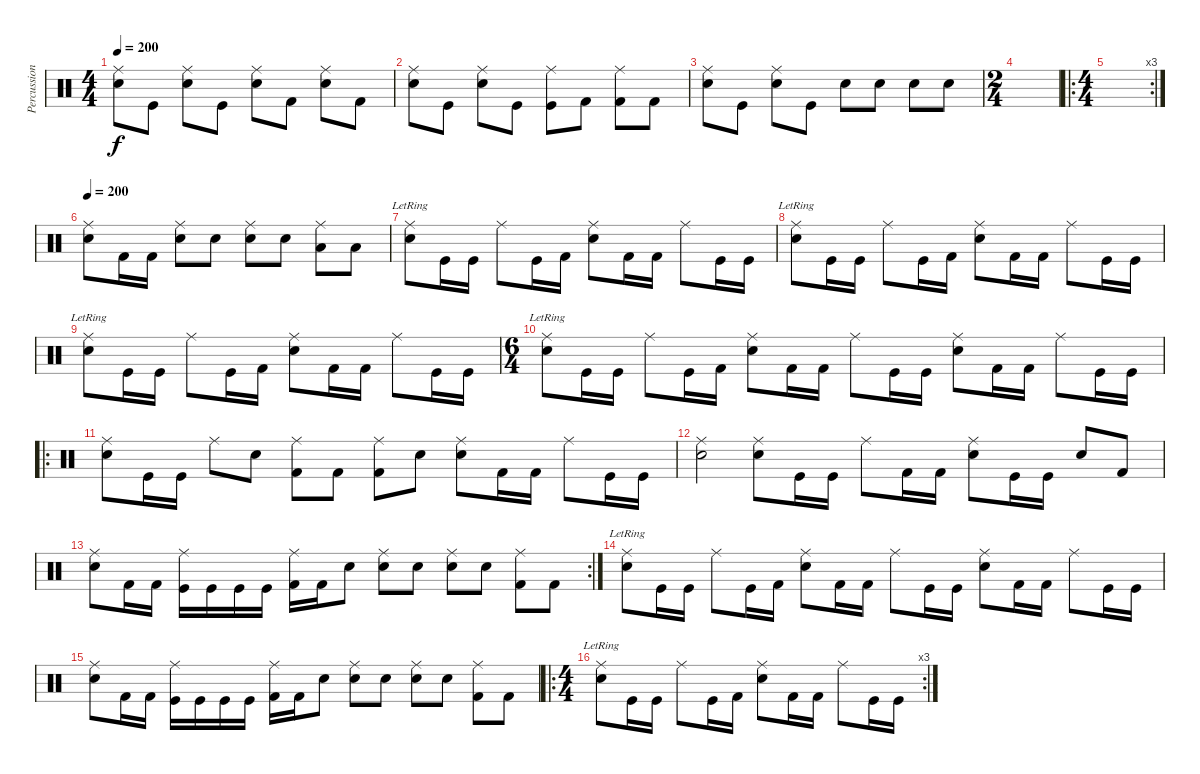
\track ("Percussion" "Percussion") {instrument percussion}
\staff {score}
\articulation defaults
\ts (4 4)
\tempo 200
\clef neutral
\ks c
("Ride (middle)" "Electric Snare (hit)").8{dy f} "Kick (hit)".8 ("Ride (middle)" "Electric Snare (hit)").8 "Kick (hit)".8 ("Ride (middle)" "Electric Snare (hit)").8 "Kick (hit) 2".8 ("Ride (middle)" "Electric Snare (hit)").8 "Kick (hit) 2".8 |
("Ride (middle)" "Electric Snare (hit)").8 "Kick (hit)".8 ("Ride (middle)" "Electric Snare (hit)").8 "Kick (hit)".8 ("Ride (middle)" "Kick (hit)").8 "Kick (hit) 2".8 ("Ride (middle)" "Kick (hit) 2").8 "Kick (hit) 2".8 |
("Ride (middle)" "Electric Snare (hit)").8 "Kick (hit)".8 ("Ride (middle)" "Electric Snare (hit)").8 "Kick (hit)".8 "Electric Snare (hit)".8 "Electric Snare (hit)".8 "Electric Snare (hit)".8 "Electric Snare (hit)".8 |
\ts (2 4)
|
\ro
\rc 3
\ts (4 4)
|
\tempo 200
("Ride (middle)" "Electric Snare (hit)").8 "Kick (hit) 2".16 "Kick (hit) 2".16 ("Ride (middle)" "Electric Snare (hit)").8 "Electric Snare (hit)".8 ("Ride (middle)" "Electric Snare (hit)").8 "Electric Snare (hit)".8 ("Ride (middle)" "Low Tom (hit)").8 "Low Tom (hit)".8 |
("Ride (middle)"{lr} "Electric Snare (hit)").8 "Kick (hit)".16 "Kick (hit)".16 "Ride (middle)".8 "Kick (hit)".16 "Kick (hit) 2".16 ("Ride (middle)" "Electric Snare (hit)").8 "Kick (hit) 2".16 "Kick (hit) 2".16 "Ride (middle)".8 "Kick (hit)".16 "Kick (hit)".16 |
("Ride (middle)"{lr} "Electric Snare (hit)").8 "Kick (hit)".16 "Kick (hit)".16 "Ride (middle)".8 "Kick (hit)".16 "Kick (hit) 2".16 ("Ride (middle)" "Electric Snare (hit)").8 "Kick (hit) 2".16 "Kick (hit) 2".16 "Ride (middle)".8 "Kick (hit)".16 "Kick (hit)".16 |
("Ride (middle)"{lr} "Electric Snare (hit)").8 "Kick (hit)".16 "Kick (hit)".16 "Ride (middle)".8 "Kick (hit)".16 "Kick (hit) 2".16 ("Ride (middle)" "Electric Snare (hit)").8 "Kick (hit) 2".16 "Kick (hit) 2".16 "Ride (middle)".8 "Kick (hit)".16 "Kick (hit)".16 |
\ts (6 4)
("Ride (middle)"{lr} "Electric Snare (hit)").8 "Kick (hit)".16 "Kick (hit)".16 "Ride (middle)".8 "Kick (hit)".16 "Kick (hit) 2".16 ("Ride (middle)" "Electric Snare (hit)").8 "Kick (hit) 2".16 "Kick (hit) 2".16 "Ride (middle)".8 "Kick (hit)".16 "Kick (hit)".16 ("Ride (middle)" "Electric Snare (hit)").8 "Kick (hit) 2".16 "Kick (hit) 2".16 "Ride (middle)".8 "Kick (hit)".16 "Kick (hit)".16 |
\ro
("Ride (middle)" "Electric Snare (hit)").8 "Kick (hit)".16 "Kick (hit)".16 "Ride (middle)".8 "Electric Snare (hit)".8 ("Ride (middle)" "Kick (hit) 2").8 "Kick (hit) 2".8 ("Ride (middle)" "Kick (hit) 2").8 "Electric Snare (hit)".8 ("Ride (middle)" "Electric Snare (hit)").8 "Kick (hit) 2".16 "Kick (hit) 2".16 "Ride (middle)".8 "Kick (hit)".16 "Kick (hit)".16 |
("Ride (middle)" "Electric Snare (hit)").2 ("Ride (middle)" "Electric Snare (hit)").8 "Kick (hit)".16 "Kick (hit)".16 "Ride (middle)".8 "Kick (hit) 2".16 "Kick (hit) 2".16 ("Ride (middle)" "Electric Snare (hit)").8 "Kick (hit)".16 "Kick (hit)".16 "Electric Snare (hit)".8 "Kick (hit) 2".8 |
\rc 2
("Ride (middle)" "Electric Snare (hit)").8 "Kick (hit) 2".16 "Kick (hit) 2".16 ("Ride (middle)" "Kick (hit)").16 "Kick (hit)".16 "Kick (hit)".16 "Kick (hit)".16 ("Ride (middle)" "Kick (hit) 2").16 "Kick (hit) 2".16 "Electric Snare (hit)".8 ("Ride (middle)" "Electric Snare (hit)").8 "Electric Snare (hit)".8 ("Ride (middle)" "Electric Snare (hit)").8 "Electric Snare (hit)".8 ("Ride (middle)" "Kick (hit) 2").8 "Kick (hit) 2".8 |
("Ride (middle)"{lr} "Electric Snare (hit)").8 "Kick (hit)".16 "Kick (hit)".16 "Ride (middle)".8 "Kick (hit)".16 "Kick (hit) 2".16 ("Ride (middle)" "Electric Snare (hit)").8 "Kick (hit) 2".16 "Kick (hit) 2".16 "Ride (middle)".8 "Kick (hit)".16 "Kick (hit)".16 ("Ride (middle)" "Electric Snare (hit)").8 "Kick (hit) 2".16 "Kick (hit) 2".16 "Ride (middle)".8 "Kick (hit)".16 "Kick (hit)".16 |
("Ride (middle)" "Electric Snare (hit)").8 "Kick (hit) 2".16 "Kick (hit) 2".16 ("Ride (middle)" "Kick (hit)").16 "Kick (hit)".16 "Kick (hit)".16 "Kick (hit)".16 ("Ride (middle)" "Kick (hit) 2").16 "Kick (hit) 2".16 "Electric Snare (hit)".8 ("Ride (middle)" "Electric Snare (hit)").8 "Electric Snare (hit)".8 ("Ride (middle)" "Electric Snare (hit)").8 "Electric Snare (hit)".8 ("Ride (middle)" "Kick (hit) 2").8 "Kick (hit) 2".8 |
\ro
\rc 3
\ts (4 4)
("Ride (middle)"{lr} "Electric Snare (hit)").8 "Kick (hit)".16 "Kick (hit)".16 "Ride (middle)".8 "Kick (hit)".16 "Kick (hit) 2".16 ("Ride (middle)" "Electric Snare (hit)").8 "Kick (hit) 2".16 "Kick (hit) 2".16 "Ride (middle)".8 "Kick (hit)".16 "Kick (hit)".16
